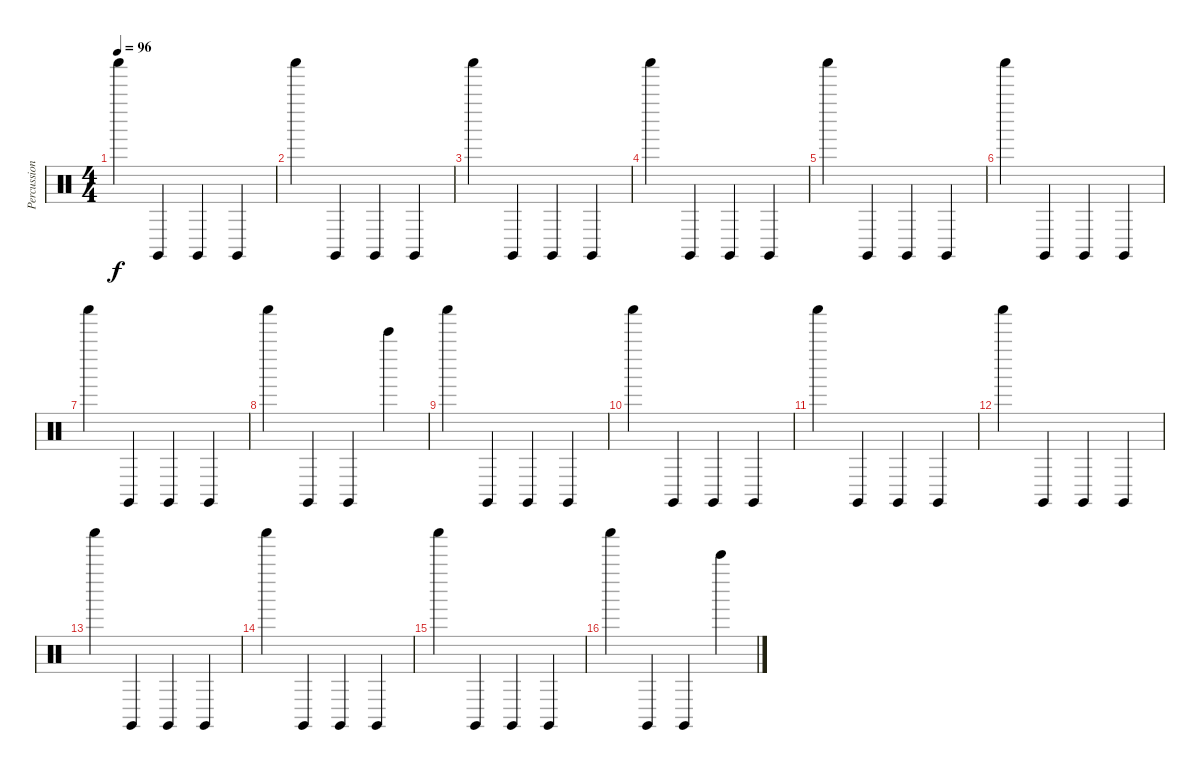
\track ("Percussion" "Percussion") {instrument percussion}
\staff {score}
\articulation defaults
\ts (4 4)
\tempo 96
\clef neutral
\ks c "Shaker (hit)".4{dy f} "Claves (hit)".4 "Claves (hit)".4 "Claves (hit)".4
|
"Shaker (hit)".4 "Claves (hit)".4 "Claves (hit)".4 "Claves (hit)".4 |
"Shaker (hit)".4 "Claves (hit)".4 "Claves (hit)".4 "Claves (hit)".4 |
"Shaker (hit)".4 "Claves (hit)".4 "Claves (hit)".4 "Claves (hit)".4 |
"Shaker (hit)".4 "Claves (hit)".4 "Claves (hit)".4 "Claves (hit)".4 |
"Shaker (hit)".4 "Claves (hit)".4 "Claves (hit)".4 "Claves (hit)".4 |
"Shaker (hit)".4 "Claves (hit)".4 "Claves (hit)".4 "Claves (hit)".4 |
"Shaker (hit)".4 "Claves (hit)".4 "Claves (hit)".4 "Bell Tree (hit)".4 |
"Shaker (hit)".4 "Claves (hit)".4 "Claves (hit)".4 "Claves (hit)".4 |
"Shaker (hit)".4 "Claves (hit)".4 "Claves (hit)".4 "Claves (hit)".4 |
"Shaker (hit)".4 "Claves (hit)".4 "Claves (hit)".4 "Claves (hit)".4 |
"Shaker (hit)".4 "Claves (hit)".4 "Claves (hit)".4 "Claves (hit)".4 |
"Shaker (hit)".4 "Claves (hit)".4 "Claves (hit)".4 "Claves (hit)".4 |
"Shaker (hit)".4 "Claves (hit)".4 "Claves (hit)".4 "Claves (hit)".4 |
"Shaker (hit)".4 "Claves (hit)".4 "Claves (hit)".4 "Claves (hit)".4 |
"Shaker (hit)".4 "Claves (hit)".4 "Claves (hit)".4 "Bell Tree (hit)".4
